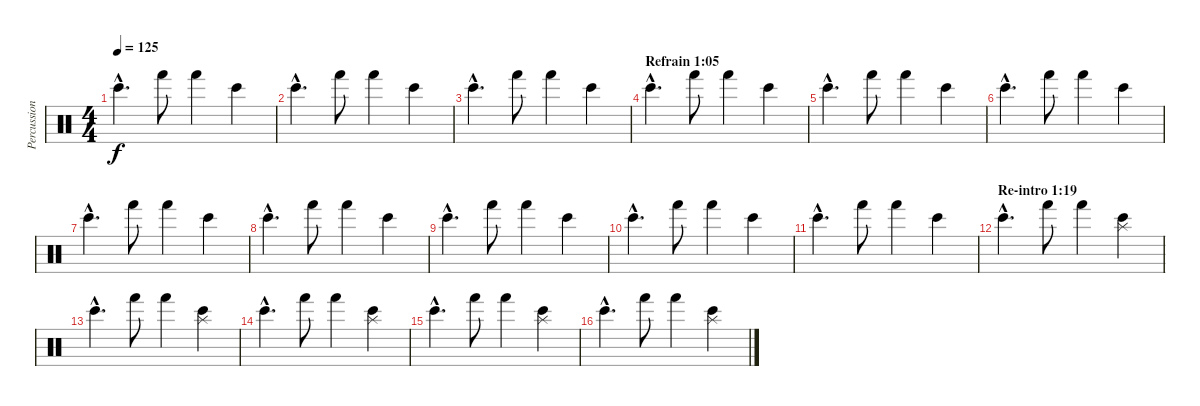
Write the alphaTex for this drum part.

\track ("Percussions" "Percussion") {instrument percussion}
\staff {score}
\articulation defaults
\ts (4 4)
\tempo 125
\clef neutral
\ks c "Bongo High (hit)"{hac}.4{d dy f} "Hand (hit)".8 "Hand (hit)".4 "Bongo High (hit)".4
|
"Bongo High (hit)"{hac}.4{d} "Hand (hit)".8 "Hand (hit)".4 "Bongo High (hit)".4 |
"Bongo High (hit)"{hac}.4{d} "Hand (hit)".8 "Hand (hit)".4 "Bongo High (hit)".4 |
\section ("" "Refrain 1:05")
"Bongo High (hit)"{hac}.4{d} "Hand (hit)".8 "Hand (hit)".4 "Bongo High (hit)".4 |
"Bongo High (hit)"{hac}.4{d} "Hand (hit)".8 "Hand (hit)".4 "Bongo High (hit)".4 |
"Bongo High (hit)"{hac}.4{d} "Hand (hit)".8 "Hand (hit)".4 "Bongo High (hit)".4 |
"Bongo High (hit)"{hac}.4{d} "Hand (hit)".8 "Hand (hit)".4 "Bongo High (hit)".4 |
"Bongo High (hit)"{hac}.4{d} "Hand (hit)".8 "Hand (hit)".4 "Bongo High (hit)".4 |
"Bongo High (hit)"{hac}.4{d} "Hand (hit)".8 "Hand (hit)".4 "Bongo High (hit)".4 |
"Bongo High (hit)"{hac}.4{d} "Hand (hit)".8 "Hand (hit)".4 "Bongo High (hit)".4 |
"Bongo High (hit)"{hac}.4{d} "Hand (hit)".8 "Hand (hit)".4 "Bongo High (hit)".4 |
\section ("" "Re-intro 1:19")
"Bongo High (hit)"{hac}.4{d} "Hand (hit)".8 "Hand (hit)".4 ("Splash (hit)" "Bongo High (hit)").4 |
"Bongo High (hit)"{hac}.4{d} "Hand (hit)".8 "Hand (hit)".4 ("Splash (hit)" "Bongo High (hit)").4 |
"Bongo High (hit)"{hac}.4{d} "Hand (hit)".8 "Hand (hit)".4 ("Splash (hit)" "Bongo High (hit)").4 |
"Bongo High (hit)"{hac}.4{d} "Hand (hit)".8 "Hand (hit)".4 ("Splash (hit)" "Bongo High (hit)").4 |
"Bongo High (hit)"{hac}.4{d} "Hand (hit)".8 "Hand (hit)".4 ("Splash (hit)" "Bongo High (hit)").4
